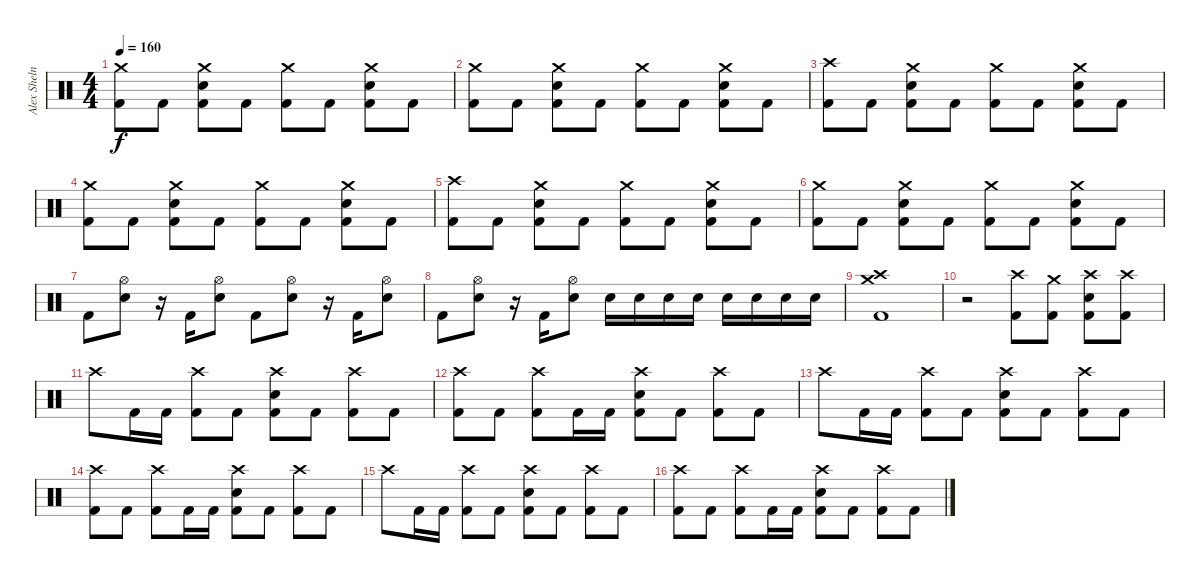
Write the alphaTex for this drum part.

\track ("Alex Shelnutt" "Alex Sheln") {instrument percussion}
\staff {score}
\articulation defaults
\ts (4 4)
\tempo 160
\clef neutral
\ks c
("Crash medium (hit)" "Kick (hit) 2").8{dy f} "Kick (hit) 2".8 ("Crash medium (hit)" "Electric Snare (hit)" "Kick (hit) 2").8 "Kick (hit) 2".8 ("Crash medium (hit)" "Kick (hit) 2").8 "Kick (hit) 2".8 ("Crash medium (hit)" "Electric Snare (hit)" "Kick (hit) 2").8 "Kick (hit) 2".8 |
("Crash medium (hit)" "Kick (hit) 2").8 "Kick (hit) 2".8 ("Crash medium (hit)" "Electric Snare (hit)" "Kick (hit) 2").8 "Kick (hit) 2".8 ("Crash medium (hit)" "Kick (hit) 2").8 "Kick (hit) 2".8 ("Crash medium (hit)" "Electric Snare (hit)" "Kick (hit) 2").8 "Kick (hit) 2".8 |
("Crash high (hit)" "Kick (hit) 2").8 "Kick (hit) 2".8 ("Crash medium (hit)" "Electric Snare (hit)" "Kick (hit) 2").8 "Kick (hit) 2".8 ("Crash medium (hit)" "Kick (hit) 2").8 "Kick (hit) 2".8 ("Crash medium (hit)" "Electric Snare (hit)" "Kick (hit) 2").8 "Kick (hit) 2".8 |
("Crash medium (hit)" "Kick (hit) 2").8 "Kick (hit) 2".8 ("Crash medium (hit)" "Electric Snare (hit)" "Kick (hit) 2").8 "Kick (hit) 2".8 ("Crash medium (hit)" "Kick (hit) 2").8 "Kick (hit) 2".8 ("Crash medium (hit)" "Electric Snare (hit)" "Kick (hit) 2").8 "Kick (hit) 2".8 |
("Crash high (hit)" "Kick (hit) 2").8 "Kick (hit) 2".8 ("Crash medium (hit)" "Electric Snare (hit)" "Kick (hit) 2").8 "Kick (hit) 2".8 ("Crash medium (hit)" "Kick (hit) 2").8 "Kick (hit) 2".8 ("Crash medium (hit)" "Electric Snare (hit)" "Kick (hit) 2").8 "Kick (hit) 2".8 |
("Crash medium (hit)" "Kick (hit) 2").8 "Kick (hit) 2".8 ("Crash medium (hit)" "Electric Snare (hit)" "Kick (hit) 2").8 "Kick (hit) 2".8 ("Crash medium (hit)" "Kick (hit) 2").8 "Kick (hit) 2".8 ("Crash medium (hit)" "Electric Snare (hit)" "Kick (hit) 2").8 "Kick (hit) 2".8 |
"Kick (hit) 2".8 ("Hi-Hat (open)" "Electric Snare (hit)").8 r.16 "Kick (hit) 2".16 ("Hi-Hat (open)" "Electric Snare (hit)").8 "Kick (hit) 2".8 ("Hi-Hat (open)" "Electric Snare (hit)").8 r.16 "Kick (hit) 2".16 ("Hi-Hat (open)" "Electric Snare (hit)").8 |
"Kick (hit) 2".8 ("Hi-Hat (open)" "Electric Snare (hit)").8 r.16 "Kick (hit) 2".16 ("Hi-Hat (open)" "Electric Snare (hit)").8 "Electric Snare (hit)".16 "Electric Snare (hit)".16 "Electric Snare (hit)".16 "Electric Snare (hit)".16 "Electric Snare (hit)".16 "Electric Snare (hit)".16 "Electric Snare (hit)".16 "Electric Snare (hit)".16 |
("Crash medium (hit)" "Crash high (hit)" "Kick (hit) 2").1 |
r.2 ("Crash high (hit)" "Kick (hit) 2").8 ("Crash medium (hit)" "Kick (hit) 2").8 ("Crash high (hit)" "Electric Snare (hit)" "Kick (hit) 2").8 ("Crash high (hit)" "Kick (hit) 2").8 |
"Crash high (hit)".8 "Kick (hit) 2".16 "Kick (hit) 2".16 ("Crash high (hit)" "Kick (hit) 2").8 "Kick (hit) 2".8 ("Crash high (hit)" "Electric Snare (hit)" "Kick (hit) 2").8 "Kick (hit) 2".8 ("Crash high (hit)" "Kick (hit) 2").8 "Kick (hit) 2".8 |
("Crash high (hit)" "Kick (hit) 2").8 "Kick (hit) 2".8 ("Crash high (hit)" "Kick (hit) 2").8 "Kick (hit) 2".16 "Kick (hit) 2".16 ("Crash high (hit)" "Electric Snare (hit)" "Kick (hit) 2").8 "Kick (hit) 2".8 ("Crash high (hit)" "Kick (hit) 2").8 "Kick (hit) 2".8 |
"Crash high (hit)".8 "Kick (hit) 2".16 "Kick (hit) 2".16 ("Crash high (hit)" "Kick (hit) 2").8 "Kick (hit) 2".8 ("Crash high (hit)" "Electric Snare (hit)" "Kick (hit) 2").8 "Kick (hit) 2".8 ("Crash high (hit)" "Kick (hit) 2").8 "Kick (hit) 2".8 |
("Crash high (hit)" "Kick (hit) 2").8 "Kick (hit) 2".8 ("Crash high (hit)" "Kick (hit) 2").8 "Kick (hit) 2".16 "Kick (hit) 2".16 ("Crash high (hit)" "Electric Snare (hit)" "Kick (hit) 2").8 "Kick (hit) 2".8 ("Crash high (hit)" "Kick (hit) 2").8 "Kick (hit) 2".8 |
"Crash high (hit)".8 "Kick (hit) 2".16 "Kick (hit) 2".16 ("Crash high (hit)" "Kick (hit) 2").8 "Kick (hit) 2".8 ("Crash high (hit)" "Electric Snare (hit)" "Kick (hit) 2").8 "Kick (hit) 2".8 ("Crash high (hit)" "Kick (hit) 2").8 "Kick (hit) 2".8 |
("Crash high (hit)" "Kick (hit) 2").8 "Kick (hit) 2".8 ("Crash high (hit)" "Kick (hit) 2").8 "Kick (hit) 2".16 "Kick (hit) 2".16 ("Crash high (hit)" "Electric Snare (hit)" "Kick (hit) 2").8 "Kick (hit) 2".8 ("Crash high (hit)" "Kick (hit) 2").8 "Kick (hit) 2".8
